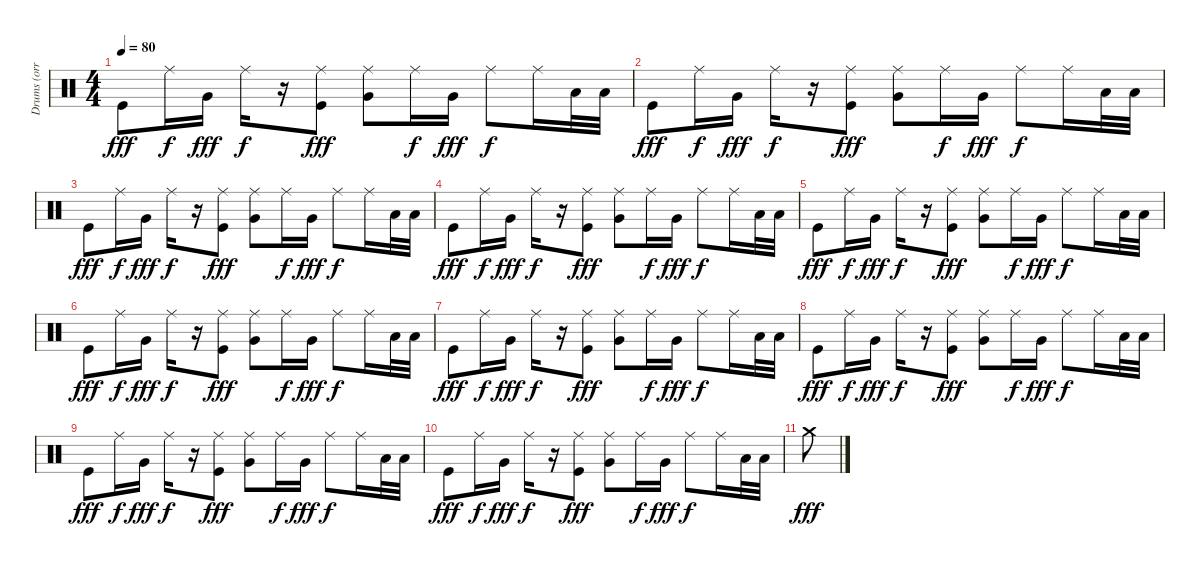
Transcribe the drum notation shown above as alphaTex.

\track ("Drums (orri páll dırason)" "Drums (orr") {instrument percussion}
\staff {score}
\articulation defaults
\ts (4 4)
\tempo 80
\clef neutral
\ks c "Kick (hit)".8{dy fff} "Ride (middle)".16{dy f} "Very Low Tom (hit)".16{dy fff} "Ride (middle)".16{dy f}
r.16 ("Ride (middle)" "Kick (hit)").8{dy fff} ("Ride (middle)" "Very Low Tom (hit)").8 "Ride (middle)".16{dy f} "Very Low Tom (hit)".16{dy fff} "Ride (middle)".8{dy f} "Ride (middle)".16 "Low Tom (hit)".32 "Low Tom (hit)".32 |
"Kick (hit)".8{dy fff} "Ride (middle)".16{dy f} "Very Low Tom (hit)".16{dy fff} "Ride (middle)".16{dy f} r.16 ("Ride (middle)" "Kick (hit)").8{dy fff} ("Ride (middle)" "Very Low Tom (hit)").8 "Ride (middle)".16{dy f} "Very Low Tom (hit)".16{dy fff} "Ride (middle)".8{dy f} "Ride (middle)".16 "Low Tom (hit)".32 "Low Tom (hit)".32 |
"Kick (hit)".8{dy fff} "Ride (middle)".16{dy f} "Very Low Tom (hit)".16{dy fff} "Ride (middle)".16{dy f} r.16 ("Ride (middle)" "Kick (hit)").8{dy fff} ("Ride (middle)" "Very Low Tom (hit)").8 "Ride (middle)".16{dy f} "Very Low Tom (hit)".16{dy fff} "Ride (middle)".8{dy f} "Ride (middle)".16 "Low Tom (hit)".32 "Low Tom (hit)".32 |
"Kick (hit)".8{dy fff} "Ride (middle)".16{dy f} "Very Low Tom (hit)".16{dy fff} "Ride (middle)".16{dy f} r.16 ("Ride (middle)" "Kick (hit)").8{dy fff} ("Ride (middle)" "Very Low Tom (hit)").8 "Ride (middle)".16{dy f} "Very Low Tom (hit)".16{dy fff} "Ride (middle)".8{dy f} "Ride (middle)".16 "Low Tom (hit)".32 "Low Tom (hit)".32 |
"Kick (hit)".8{dy fff} "Ride (middle)".16{dy f} "Very Low Tom (hit)".16{dy fff} "Ride (middle)".16{dy f} r.16 ("Ride (middle)" "Kick (hit)").8{dy fff} ("Ride (middle)" "Very Low Tom (hit)").8 "Ride (middle)".16{dy f} "Very Low Tom (hit)".16{dy fff} "Ride (middle)".8{dy f} "Ride (middle)".16 "Low Tom (hit)".32 "Low Tom (hit)".32 |
"Kick (hit)".8{dy fff} "Ride (middle)".16{dy f} "Very Low Tom (hit)".16{dy fff} "Ride (middle)".16{dy f} r.16 ("Ride (middle)" "Kick (hit)").8{dy fff} ("Ride (middle)" "Very Low Tom (hit)").8 "Ride (middle)".16{dy f} "Very Low Tom (hit)".16{dy fff} "Ride (middle)".8{dy f} "Ride (middle)".16 "Low Tom (hit)".32 "Low Tom (hit)".32 |
"Kick (hit)".8{dy fff} "Ride (middle)".16{dy f} "Very Low Tom (hit)".16{dy fff} "Ride (middle)".16{dy f} r.16 ("Ride (middle)" "Kick (hit)").8{dy fff} ("Ride (middle)" "Very Low Tom (hit)").8 "Ride (middle)".16{dy f} "Very Low Tom (hit)".16{dy fff} "Ride (middle)".8{dy f} "Ride (middle)".16 "Low Tom (hit)".32 "Low Tom (hit)".32 |
"Kick (hit)".8{dy fff} "Ride (middle)".16{dy f} "Very Low Tom (hit)".16{dy fff} "Ride (middle)".16{dy f} r.16 ("Ride (middle)" "Kick (hit)").8{dy fff} ("Ride (middle)" "Very Low Tom (hit)").8 "Ride (middle)".16{dy f} "Very Low Tom (hit)".16{dy fff} "Ride (middle)".8{dy f} "Ride (middle)".16 "Low Tom (hit)".32 "Low Tom (hit)".32 |
"Kick (hit)".8{dy fff} "Ride (middle)".16{dy f} "Very Low Tom (hit)".16{dy fff} "Ride (middle)".16{dy f} r.16 ("Ride (middle)" "Kick (hit)").8{dy fff} ("Ride (middle)" "Very Low Tom (hit)").8 "Ride (middle)".16{dy f} "Very Low Tom (hit)".16{dy fff} "Ride (middle)".8{dy f} "Ride (middle)".16 "Low Tom (hit)".32 "Low Tom (hit)".32 |
"Kick (hit)".8{dy fff} "Ride (middle)".16{dy f} "Very Low Tom (hit)".16{dy fff} "Ride (middle)".16{dy f} r.16 ("Ride (middle)" "Kick (hit)").8{dy fff} ("Ride (middle)" "Very Low Tom (hit)").8 "Ride (middle)".16{dy f} "Very Low Tom (hit)".16{dy fff} "Ride (middle)".8{dy f} "Ride (middle)".16 "Low Tom (hit)".32 "Low Tom (hit)".32 |
"Crash medium (hit)".8{dy fff}
